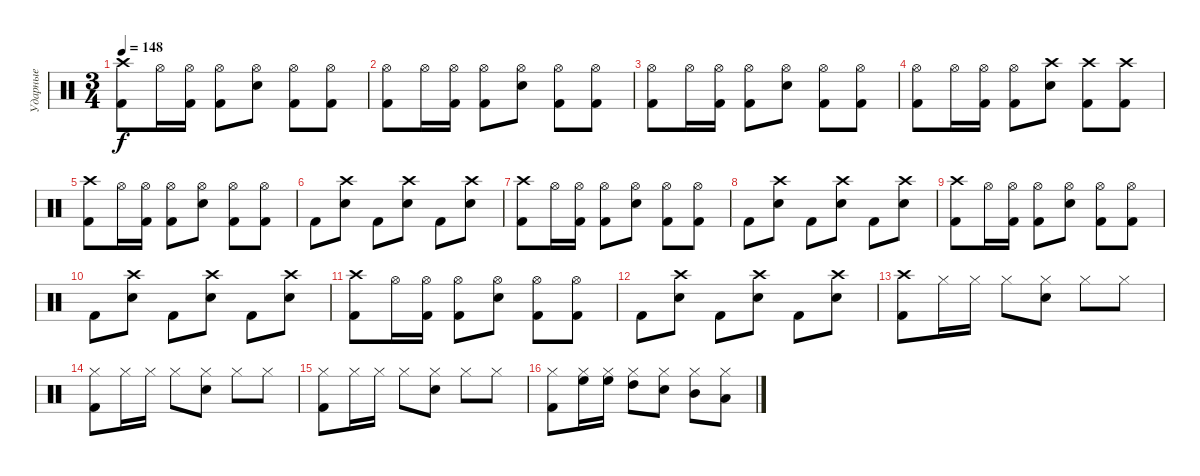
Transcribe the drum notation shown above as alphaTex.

\track ("Ударные" "Ударные") {instrument percussion}
\staff {score}
\articulation defaults
\ts (3 4)
\tempo 148
\clef neutral
\ks c
("Crash high (hit)" "Kick (hit) 2").8{dy f} "Hi-Hat (open)".16 ("Hi-Hat (open)" "Kick (hit) 2").16 ("Hi-Hat (open)" "Kick (hit) 2").8 ("Hi-Hat (open)" "Electric Snare (hit)").8 ("Hi-Hat (open)" "Kick (hit) 2").8 ("Hi-Hat (open)" "Kick (hit) 2").8 |
("Hi-Hat (open)" "Kick (hit) 2").8 "Hi-Hat (open)".16 ("Hi-Hat (open)" "Kick (hit) 2").16 ("Hi-Hat (open)" "Kick (hit) 2").8 ("Hi-Hat (open)" "Electric Snare (hit)").8 ("Hi-Hat (open)" "Kick (hit) 2").8 ("Hi-Hat (open)" "Kick (hit) 2").8 |
("Hi-Hat (open)" "Kick (hit) 2").8 "Hi-Hat (open)".16 ("Hi-Hat (open)" "Kick (hit) 2").16 ("Hi-Hat (open)" "Kick (hit) 2").8 ("Hi-Hat (open)" "Electric Snare (hit)").8 ("Hi-Hat (open)" "Kick (hit) 2").8 ("Hi-Hat (open)" "Kick (hit) 2").8 |
("Hi-Hat (open)" "Kick (hit) 2").8 "Hi-Hat (open)".16 ("Hi-Hat (open)" "Kick (hit) 2").16 ("Hi-Hat (open)" "Kick (hit) 2").8 ("Crash high (hit)" "Electric Snare (hit)").8 ("Crash high (hit)" "Kick (hit) 2").8 ("Crash high (hit)" "Kick (hit) 2").8 |
("Crash high (hit)" "Kick (hit) 2").8 "Hi-Hat (open)".16 ("Hi-Hat (open)" "Kick (hit) 2").16 ("Hi-Hat (open)" "Kick (hit) 2").8 ("Hi-Hat (open)" "Electric Snare (hit)").8 ("Hi-Hat (open)" "Kick (hit) 2").8 ("Hi-Hat (open)" "Kick (hit) 2").8 |
"Kick (hit) 2".8 ("Crash high (hit)" "Electric Snare (hit)").8 "Kick (hit) 2".8 ("Crash high (hit)" "Electric Snare (hit)").8 "Kick (hit) 2".8 ("Crash high (hit)" "Electric Snare (hit)").8 |
("Crash high (hit)" "Kick (hit) 2").8 "Hi-Hat (open)".16 ("Hi-Hat (open)" "Kick (hit) 2").16 ("Hi-Hat (open)" "Kick (hit) 2").8 ("Hi-Hat (open)" "Electric Snare (hit)").8 ("Hi-Hat (open)" "Kick (hit) 2").8 ("Hi-Hat (open)" "Kick (hit) 2").8 |
"Kick (hit) 2".8 ("Crash high (hit)" "Electric Snare (hit)").8 "Kick (hit) 2".8 ("Crash high (hit)" "Electric Snare (hit)").8 "Kick (hit) 2".8 ("Crash high (hit)" "Electric Snare (hit)").8 |
("Crash high (hit)" "Kick (hit) 2").8 "Hi-Hat (open)".16 ("Hi-Hat (open)" "Kick (hit) 2").16 ("Hi-Hat (open)" "Kick (hit) 2").8 ("Hi-Hat (open)" "Electric Snare (hit)").8 ("Hi-Hat (open)" "Kick (hit) 2").8 ("Hi-Hat (open)" "Kick (hit) 2").8 |
"Kick (hit) 2".8 ("Crash high (hit)" "Electric Snare (hit)").8 "Kick (hit) 2".8 ("Crash high (hit)" "Electric Snare (hit)").8 "Kick (hit) 2".8 ("Crash high (hit)" "Electric Snare (hit)").8 |
("Crash high (hit)" "Kick (hit) 2").8 "Hi-Hat (open)".16 ("Hi-Hat (open)" "Kick (hit) 2").16 ("Hi-Hat (open)" "Kick (hit) 2").8 ("Hi-Hat (open)" "Electric Snare (hit)").8 ("Hi-Hat (open)" "Kick (hit) 2").8 ("Hi-Hat (open)" "Kick (hit) 2").8 |
"Kick (hit) 2".8 ("Crash high (hit)" "Electric Snare (hit)").8 "Kick (hit) 2".8 ("Crash high (hit)" "Electric Snare (hit)").8 "Kick (hit) 2".8 ("Crash high (hit)" "Electric Snare (hit)").8 |
("Crash high (hit)" "Kick (hit) 2").8 "Hi-Hat (closed)".16 "Hi-Hat (closed)".16 "Hi-Hat (closed)".8 ("Hi-Hat (closed)" "Electric Snare (hit)").8 "Hi-Hat (closed)".8 "Hi-Hat (closed)".8 |
("Hi-Hat (closed)" "Kick (hit) 2").8 "Hi-Hat (closed)".16 "Hi-Hat (closed)".16 "Hi-Hat (closed)".8 ("Hi-Hat (closed)" "Electric Snare (hit)").8 "Hi-Hat (closed)".8 "Hi-Hat (closed)".8 |
("Hi-Hat (closed)" "Kick (hit) 2").8 "Hi-Hat (closed)".16 "Hi-Hat (closed)".16 "Hi-Hat (closed)".8 ("Hi-Hat (closed)" "Electric Snare (hit)").8 "Hi-Hat (closed)".8 "Hi-Hat (closed)".8 |
("Hi-Hat (closed)" "Kick (hit) 2").8 ("Hi-Hat (closed)" "High Floor Tom (hit)").16 ("Hi-Hat (closed)" "High Floor Tom (hit)").16 ("Hi-Hat (closed)" "High Tom (hit)").8 ("Hi-Hat (closed)" "Electric Snare (hit)").8 ("Hi-Hat (closed)" "Mid Tom (hit)").8 ("Hi-Hat (closed)" "Low Tom (hit)").8
